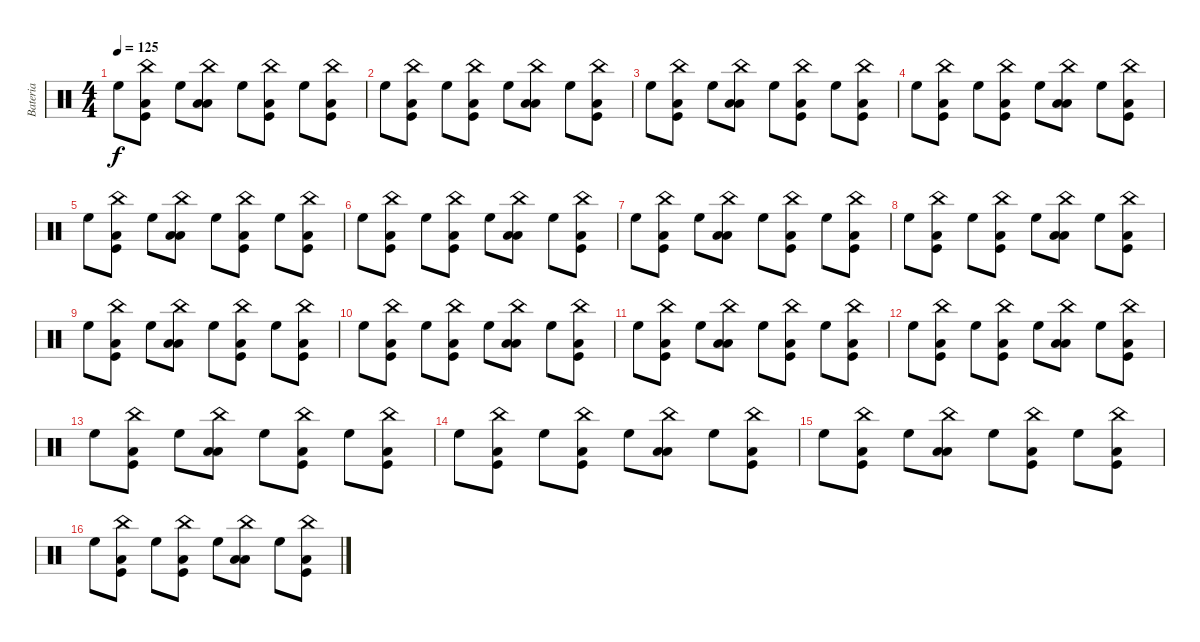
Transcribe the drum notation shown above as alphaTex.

\track ("Bateria" "Bateria") {instrument percussion}
\staff {score}
\articulation defaults
\ts (4 4)
\tempo 125
\clef neutral
\ks c "High Floor Tom (hit)".8{dy f}
("Low Tom (hit)" "Kick (hit)" "China (hit)").8 "High Floor Tom (hit)".8 ("Low Tom (hit)" "Low Tom (hit)" "China (hit)").8 "High Floor Tom (hit)".8 ("Low Tom (hit)" "Kick (hit)" "China (hit)").8 "High Floor Tom (hit)".8 ("Low Tom (hit)" "Kick (hit)" "China (hit)").8 |
"High Floor Tom (hit)".8 ("Low Tom (hit)" "Kick (hit)" "China (hit)").8 "High Floor Tom (hit)".8 ("Low Tom (hit)" "Kick (hit)" "China (hit)").8 "High Floor Tom (hit)".8 ("Low Tom (hit)" "Low Tom (hit)" "China (hit)").8 "High Floor Tom (hit)".8 ("Low Tom (hit)" "Kick (hit)" "China (hit)").8 |
"High Floor Tom (hit)".8 ("Low Tom (hit)" "Kick (hit)" "China (hit)").8 "High Floor Tom (hit)".8 ("Low Tom (hit)" "Low Tom (hit)" "China (hit)").8 "High Floor Tom (hit)".8 ("Low Tom (hit)" "Kick (hit)" "China (hit)").8 "High Floor Tom (hit)".8 ("Low Tom (hit)" "Kick (hit)" "China (hit)").8 |
"High Floor Tom (hit)".8 ("Low Tom (hit)" "Kick (hit)" "China (hit)").8 "High Floor Tom (hit)".8 ("Low Tom (hit)" "Kick (hit)" "China (hit)").8 "High Floor Tom (hit)".8 ("Low Tom (hit)" "Low Tom (hit)" "China (hit)").8 "High Floor Tom (hit)".8 ("Low Tom (hit)" "Kick (hit)" "China (hit)").8 |
"High Floor Tom (hit)".8 ("Low Tom (hit)" "Kick (hit)" "China (hit)").8 "High Floor Tom (hit)".8 ("Low Tom (hit)" "Low Tom (hit)" "China (hit)").8 "High Floor Tom (hit)".8 ("Low Tom (hit)" "Kick (hit)" "China (hit)").8 "High Floor Tom (hit)".8 ("Low Tom (hit)" "Kick (hit)" "China (hit)").8 |
"High Floor Tom (hit)".8 ("Low Tom (hit)" "Kick (hit)" "China (hit)").8 "High Floor Tom (hit)".8 ("Low Tom (hit)" "Kick (hit)" "China (hit)").8 "High Floor Tom (hit)".8 ("Low Tom (hit)" "Low Tom (hit)" "China (hit)").8 "High Floor Tom (hit)".8 ("Low Tom (hit)" "Kick (hit)" "China (hit)").8 |
"High Floor Tom (hit)".8 ("Low Tom (hit)" "Kick (hit)" "China (hit)").8 "High Floor Tom (hit)".8 ("Low Tom (hit)" "Low Tom (hit)" "China (hit)").8 "High Floor Tom (hit)".8 ("Low Tom (hit)" "Kick (hit)" "China (hit)").8 "High Floor Tom (hit)".8 ("Low Tom (hit)" "Kick (hit)" "China (hit)").8 |
"High Floor Tom (hit)".8 ("Low Tom (hit)" "Kick (hit)" "China (hit)").8 "High Floor Tom (hit)".8 ("Low Tom (hit)" "Kick (hit)" "China (hit)").8 "High Floor Tom (hit)".8 ("Low Tom (hit)" "Low Tom (hit)" "China (hit)").8 "High Floor Tom (hit)".8 ("Low Tom (hit)" "Kick (hit)" "China (hit)").8 |
"High Floor Tom (hit)".8 ("Low Tom (hit)" "Kick (hit)" "China (hit)").8 "High Floor Tom (hit)".8 ("Low Tom (hit)" "Low Tom (hit)" "China (hit)").8 "High Floor Tom (hit)".8 ("Low Tom (hit)" "Kick (hit)" "China (hit)").8 "High Floor Tom (hit)".8 ("Low Tom (hit)" "Kick (hit)" "China (hit)").8 |
"High Floor Tom (hit)".8 ("Low Tom (hit)" "Kick (hit)" "China (hit)").8 "High Floor Tom (hit)".8 ("Low Tom (hit)" "Kick (hit)" "China (hit)").8 "High Floor Tom (hit)".8 ("Low Tom (hit)" "Low Tom (hit)" "China (hit)").8 "High Floor Tom (hit)".8 ("Low Tom (hit)" "Kick (hit)" "China (hit)").8 |
"High Floor Tom (hit)".8 ("Low Tom (hit)" "Kick (hit)" "China (hit)").8 "High Floor Tom (hit)".8 ("Low Tom (hit)" "Low Tom (hit)" "China (hit)").8 "High Floor Tom (hit)".8 ("Low Tom (hit)" "Kick (hit)" "China (hit)").8 "High Floor Tom (hit)".8 ("Low Tom (hit)" "Kick (hit)" "China (hit)").8 |
"High Floor Tom (hit)".8 ("Low Tom (hit)" "Kick (hit)" "China (hit)").8 "High Floor Tom (hit)".8 ("Low Tom (hit)" "Kick (hit)" "China (hit)").8 "High Floor Tom (hit)".8 ("Low Tom (hit)" "Low Tom (hit)" "China (hit)").8 "High Floor Tom (hit)".8 ("Low Tom (hit)" "Kick (hit)" "China (hit)").8 |
"High Floor Tom (hit)".8 ("Low Tom (hit)" "Kick (hit)" "China (hit)").8 "High Floor Tom (hit)".8 ("Low Tom (hit)" "Low Tom (hit)" "China (hit)").8 "High Floor Tom (hit)".8 ("Low Tom (hit)" "Kick (hit)" "China (hit)").8 "High Floor Tom (hit)".8 ("Low Tom (hit)" "Kick (hit)" "China (hit)").8 |
"High Floor Tom (hit)".8 ("Low Tom (hit)" "Kick (hit)" "China (hit)").8 "High Floor Tom (hit)".8 ("Low Tom (hit)" "Kick (hit)" "China (hit)").8 "High Floor Tom (hit)".8 ("Low Tom (hit)" "Low Tom (hit)" "China (hit)").8 "High Floor Tom (hit)".8 ("Low Tom (hit)" "Kick (hit)" "China (hit)").8 |
"High Floor Tom (hit)".8 ("Low Tom (hit)" "Kick (hit)" "China (hit)").8 "High Floor Tom (hit)".8 ("Low Tom (hit)" "Low Tom (hit)" "China (hit)").8 "High Floor Tom (hit)".8 ("Low Tom (hit)" "Kick (hit)" "China (hit)").8 "High Floor Tom (hit)".8 ("Low Tom (hit)" "Kick (hit)" "China (hit)").8 |
"High Floor Tom (hit)".8 ("Low Tom (hit)" "Kick (hit)" "China (hit)").8 "High Floor Tom (hit)".8 ("Low Tom (hit)" "Kick (hit)" "China (hit)").8 "High Floor Tom (hit)".8 ("Low Tom (hit)" "Low Tom (hit)" "China (hit)").8 "High Floor Tom (hit)".8 ("Low Tom (hit)" "Kick (hit)" "China (hit)").8
